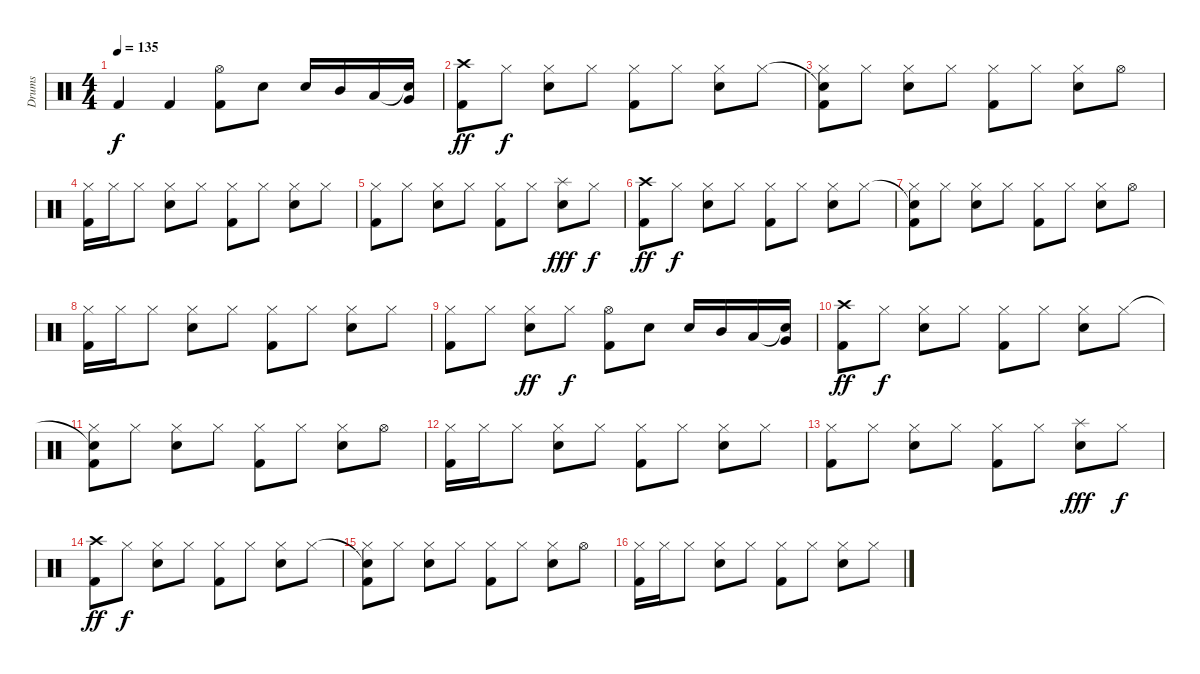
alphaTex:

\track ("Drums" "Drums") {instrument percussion}
\staff {score}
\articulation defaults
\ts (4 4)
\tempo 135
\clef neutral
\ks c "Kick (hit) 2".4{dy f} "Kick (hit) 2".4
("Hi-Hat (open)" "Kick (hit) 2").8 "Snare (hit) 2".8 "Snare (hit) 2".16 "Mid Tom (hit)".16 "Low Tom (hit)".16 ("Snare (hit)"{t} "Very Low Tom (hit)").16 |
("Crash high (hit)" "Kick (hit) 2").8{dy ff} "Hi-Hat (closed)".8{dy f} ("Hi-Hat (closed)" "Snare (hit) 2").8 "Hi-Hat (closed)".8 ("Hi-Hat (closed)" "Kick (hit) 2").8 "Hi-Hat (closed)".8 ("Hi-Hat (closed)" "Snare (hit) 2").8 "Hi-Hat (closed)".8 |
("Snare (hit)"{t} "Hi-Hat (closed)" "Kick (hit) 2").8 "Hi-Hat (closed)".8 ("Hi-Hat (closed)" "Snare (hit) 2").8 "Hi-Hat (closed)".8 ("Hi-Hat (closed)" "Kick (hit) 2").8 "Hi-Hat (closed)".8 ("Hi-Hat (closed)" "Snare (hit) 2").8 "Hi-Hat (open)".8 |
("Hi-Hat (closed)" "Kick (hit) 2").16 "Hi-Hat (closed)".16 "Hi-Hat (closed)".8 ("Hi-Hat (closed)" "Snare (hit) 2").8 "Hi-Hat (closed)".8 ("Hi-Hat (closed)" "Kick (hit) 2").8 "Hi-Hat (closed)".8 ("Hi-Hat (closed)" "Snare (hit) 2").8 "Hi-Hat (closed)".8 |
("Hi-Hat (closed)" "Kick (hit) 2").8 "Hi-Hat (closed)".8 ("Hi-Hat (closed)" "Snare (hit) 2").8 "Hi-Hat (closed)".8 ("Hi-Hat (closed)" "Kick (hit) 2").8 "Hi-Hat (closed)".8 ("Splash (hit)" "Snare (hit) 2").8{dy fff} "Hi-Hat (closed)".8{dy f} |
("Crash high (hit)" "Kick (hit) 2").8{dy ff} "Hi-Hat (closed)".8{dy f} ("Hi-Hat (closed)" "Snare (hit) 2").8 "Hi-Hat (closed)".8 ("Hi-Hat (closed)" "Kick (hit) 2").8 "Hi-Hat (closed)".8 ("Hi-Hat (closed)" "Snare (hit) 2").8 "Hi-Hat (closed)".8 |
("Snare (hit)"{t} "Hi-Hat (closed)" "Kick (hit) 2").8 "Hi-Hat (closed)".8 ("Hi-Hat (closed)" "Snare (hit) 2").8 "Hi-Hat (closed)".8 ("Hi-Hat (closed)" "Kick (hit) 2").8 "Hi-Hat (closed)".8 ("Hi-Hat (closed)" "Snare (hit) 2").8 "Hi-Hat (open)".8 |
("Hi-Hat (closed)" "Kick (hit) 2").16 "Hi-Hat (closed)".16 "Hi-Hat (closed)".8 ("Hi-Hat (closed)" "Snare (hit) 2").8 "Hi-Hat (closed)".8 ("Hi-Hat (closed)" "Kick (hit) 2").8 "Hi-Hat (closed)".8 ("Hi-Hat (closed)" "Snare (hit) 2").8 "Hi-Hat (closed)".8 |
("Hi-Hat (closed)" "Kick (hit) 2").8 "Hi-Hat (closed)".8 ("Hi-Hat (closed)" "Snare (hit) 2").8{dy ff} "Hi-Hat (closed)".8{dy f} ("Hi-Hat (open)" "Kick (hit) 2").8 "Snare (hit) 2".8 "Snare (hit) 2".16 "Mid Tom (hit)".16 "Low Tom (hit)".16 ("Snare (hit)"{t} "Very Low Tom (hit)").16 |
("Crash high (hit)" "Kick (hit) 2").8{dy ff} "Hi-Hat (closed)".8{dy f} ("Hi-Hat (closed)" "Snare (hit) 2").8 "Hi-Hat (closed)".8 ("Hi-Hat (closed)" "Kick (hit) 2").8 "Hi-Hat (closed)".8 ("Hi-Hat (closed)" "Snare (hit) 2").8 "Hi-Hat (closed)".8 |
("Snare (hit)"{t} "Hi-Hat (closed)" "Kick (hit) 2").8 "Hi-Hat (closed)".8 ("Hi-Hat (closed)" "Snare (hit) 2").8 "Hi-Hat (closed)".8 ("Hi-Hat (closed)" "Kick (hit) 2").8 "Hi-Hat (closed)".8 ("Hi-Hat (closed)" "Snare (hit) 2").8 "Hi-Hat (open)".8 |
("Hi-Hat (closed)" "Kick (hit) 2").16 "Hi-Hat (closed)".16 "Hi-Hat (closed)".8 ("Hi-Hat (closed)" "Snare (hit) 2").8 "Hi-Hat (closed)".8 ("Hi-Hat (closed)" "Kick (hit) 2").8 "Hi-Hat (closed)".8 ("Hi-Hat (closed)" "Snare (hit) 2").8 "Hi-Hat (closed)".8 |
("Hi-Hat (closed)" "Kick (hit) 2").8 "Hi-Hat (closed)".8 ("Hi-Hat (closed)" "Snare (hit) 2").8 "Hi-Hat (closed)".8 ("Hi-Hat (closed)" "Kick (hit) 2").8 "Hi-Hat (closed)".8 ("Splash (hit)" "Snare (hit) 2").8{dy fff} "Hi-Hat (closed)".8{dy f} |
("Crash high (hit)" "Kick (hit) 2").8{dy ff} "Hi-Hat (closed)".8{dy f} ("Hi-Hat (closed)" "Snare (hit) 2").8 "Hi-Hat (closed)".8 ("Hi-Hat (closed)" "Kick (hit) 2").8 "Hi-Hat (closed)".8 ("Hi-Hat (closed)" "Snare (hit) 2").8 "Hi-Hat (closed)".8 |
("Snare (hit)"{t} "Hi-Hat (closed)" "Kick (hit) 2").8 "Hi-Hat (closed)".8 ("Hi-Hat (closed)" "Snare (hit) 2").8 "Hi-Hat (closed)".8 ("Hi-Hat (closed)" "Kick (hit) 2").8 "Hi-Hat (closed)".8 ("Hi-Hat (closed)" "Snare (hit) 2").8 "Hi-Hat (open)".8 |
("Hi-Hat (closed)" "Kick (hit) 2").16 "Hi-Hat (closed)".16 "Hi-Hat (closed)".8 ("Hi-Hat (closed)" "Snare (hit) 2").8 "Hi-Hat (closed)".8 ("Hi-Hat (closed)" "Kick (hit) 2").8 "Hi-Hat (closed)".8 ("Hi-Hat (closed)" "Snare (hit) 2").8 "Hi-Hat (closed)".8
